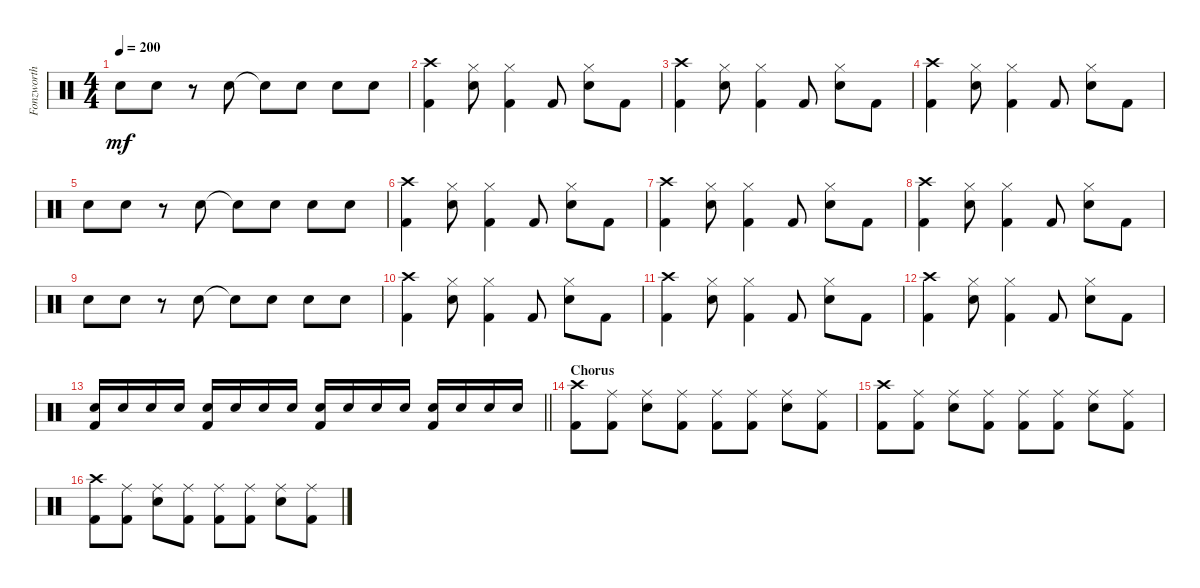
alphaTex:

\track ("Fonzworth Fred" "Fonzworth ") {instrument percussion}
\staff {score}
\articulation defaults
\ts (4 4)
\tempo 200
\clef neutral
\ks c "Snare (hit) 2".8{dy mf} "Snare (hit) 2".8
r.8 "Snare (hit) 2".8 "Snare (hit)"{t}.8 "Snare (hit) 2".8 "Snare (hit) 2".8 "Snare (hit) 2".8 |
("Crash high (hit)" "Kick (hit) 2").4 ("Hi-Hat (closed)" "Snare (hit) 2").8 ("Hi-Hat (closed)" "Kick (hit) 2").4 "Kick (hit) 2".8 ("Hi-Hat (closed)" "Snare (hit) 2").8 "Kick (hit) 2".8 |
("Crash high (hit)" "Kick (hit) 2").4 ("Hi-Hat (closed)" "Snare (hit) 2").8 ("Hi-Hat (closed)" "Kick (hit) 2").4 "Kick (hit) 2".8 ("Hi-Hat (closed)" "Snare (hit) 2").8 "Kick (hit) 2".8 |
("Crash high (hit)" "Kick (hit) 2").4 ("Hi-Hat (closed)" "Snare (hit) 2").8 ("Hi-Hat (closed)" "Kick (hit) 2").4 "Kick (hit) 2".8 ("Hi-Hat (closed)" "Snare (hit) 2").8 "Kick (hit) 2".8 |
"Snare (hit) 2".8 "Snare (hit) 2".8 r.8 "Snare (hit) 2".8 "Snare (hit)"{t}.8 "Snare (hit) 2".8 "Snare (hit) 2".8 "Snare (hit) 2".8 |
("Crash high (hit)" "Kick (hit) 2").4 ("Hi-Hat (closed)" "Snare (hit) 2").8 ("Hi-Hat (closed)" "Kick (hit) 2").4 "Kick (hit) 2".8 ("Hi-Hat (closed)" "Snare (hit) 2").8 "Kick (hit) 2".8 |
("Crash high (hit)" "Kick (hit) 2").4 ("Hi-Hat (closed)" "Snare (hit) 2").8 ("Hi-Hat (closed)" "Kick (hit) 2").4 "Kick (hit) 2".8 ("Hi-Hat (closed)" "Snare (hit) 2").8 "Kick (hit) 2".8 |
("Crash high (hit)" "Kick (hit) 2").4 ("Hi-Hat (closed)" "Snare (hit) 2").8 ("Hi-Hat (closed)" "Kick (hit) 2").4 "Kick (hit) 2".8 ("Hi-Hat (closed)" "Snare (hit) 2").8 "Kick (hit) 2".8 |
"Snare (hit) 2".8 "Snare (hit) 2".8 r.8 "Snare (hit) 2".8 "Snare (hit)"{t}.8 "Snare (hit) 2".8 "Snare (hit) 2".8 "Snare (hit) 2".8 |
("Crash high (hit)" "Kick (hit) 2").4 ("Hi-Hat (closed)" "Snare (hit) 2").8 ("Hi-Hat (closed)" "Kick (hit) 2").4 "Kick (hit) 2".8 ("Hi-Hat (closed)" "Snare (hit) 2").8 "Kick (hit) 2".8 |
("Crash high (hit)" "Kick (hit) 2").4 ("Hi-Hat (closed)" "Snare (hit) 2").8 ("Hi-Hat (closed)" "Kick (hit) 2").4 "Kick (hit) 2".8 ("Hi-Hat (closed)" "Snare (hit) 2").8 "Kick (hit) 2".8 |
("Crash high (hit)" "Kick (hit) 2").4 ("Hi-Hat (closed)" "Snare (hit) 2").8 ("Hi-Hat (closed)" "Kick (hit) 2").4 "Kick (hit) 2".8 ("Hi-Hat (closed)" "Snare (hit) 2").8 "Kick (hit) 2".8 |
\barLineRight lightlight
("Snare (hit) 2" "Kick (hit) 2").16 "Snare (hit) 2".16 "Snare (hit) 2".16 "Snare (hit) 2".16 ("Snare (hit) 2" "Kick (hit) 2").16 "Snare (hit) 2".16 "Snare (hit) 2".16 "Snare (hit) 2".16 ("Snare (hit) 2" "Kick (hit) 2").16 "Snare (hit) 2".16 "Snare (hit) 2".16 "Snare (hit) 2".16 ("Snare (hit) 2" "Kick (hit) 2").16 "Snare (hit) 2".16 "Snare (hit) 2".16 "Snare (hit) 2".16 |
\section ("" "Chorus")
("Crash high (hit)" "Kick (hit) 2").8 ("Ride (middle)" "Kick (hit) 2").8 ("Ride (middle)" "Snare (hit) 2").8 ("Ride (middle)" "Kick (hit) 2").8 ("Ride (middle)" "Kick (hit) 2").8 ("Ride (middle)" "Kick (hit) 2").8 ("Ride (middle)" "Snare (hit) 2").8 ("Ride (middle)" "Kick (hit) 2").8 |
("Crash high (hit)" "Kick (hit) 2").8 ("Ride (middle)" "Kick (hit) 2").8 ("Ride (middle)" "Snare (hit) 2").8 ("Ride (middle)" "Kick (hit) 2").8 ("Ride (middle)" "Kick (hit) 2").8 ("Ride (middle)" "Kick (hit) 2").8 ("Ride (middle)" "Snare (hit) 2").8 ("Ride (middle)" "Kick (hit) 2").8 |
("Crash high (hit)" "Kick (hit) 2").8 ("Ride (middle)" "Kick (hit) 2").8 ("Ride (middle)" "Snare (hit) 2").8 ("Ride (middle)" "Kick (hit) 2").8 ("Ride (middle)" "Kick (hit) 2").8 ("Ride (middle)" "Kick (hit) 2").8 ("Ride (middle)" "Snare (hit) 2").8 ("Ride (middle)" "Kick (hit) 2").8
